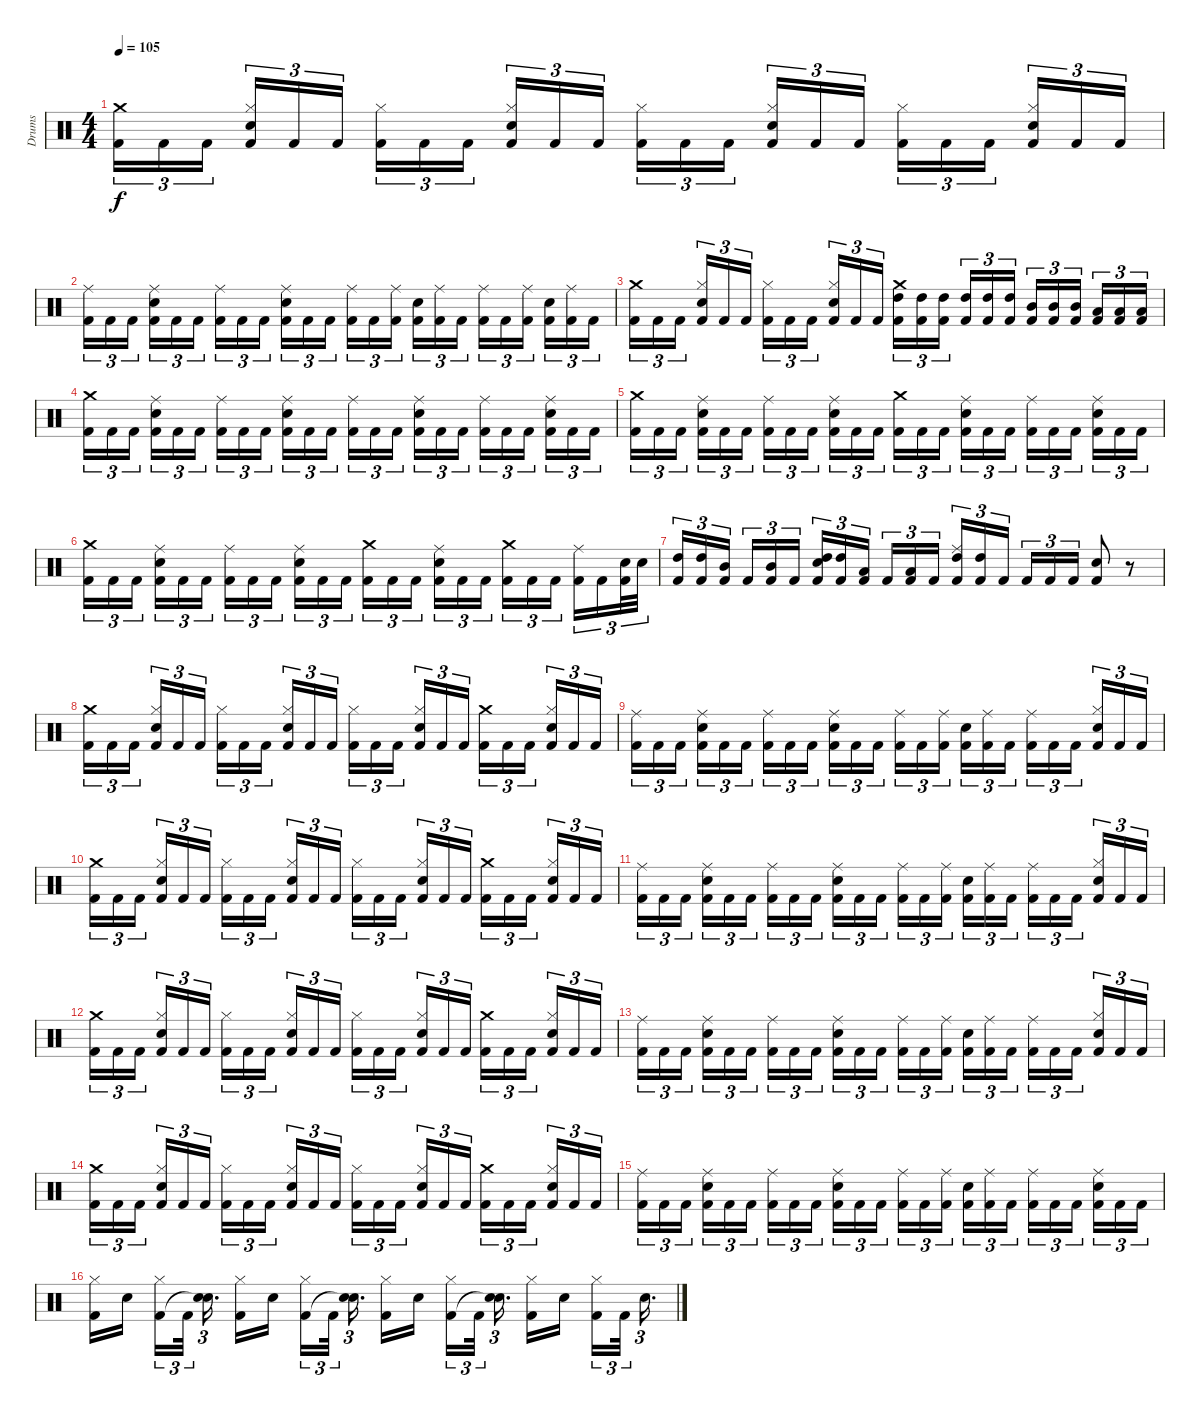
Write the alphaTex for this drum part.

\track ("Drums" "Drums") {instrument percussion}
\staff {score}
\articulation defaults
\ts (4 4)
\tempo 105
\clef neutral
\ks c
("Crash medium (hit)" "Kick (hit) 2").16{tu (3 2) dy f} "Kick (hit) 2".16{tu (3 2)} "Kick (hit) 2".16{tu (3 2)} ("Hi-Hat (closed)" "Electric Snare (hit)" "Kick (hit) 2").16{tu (3 2)} "Kick (hit) 2".16{tu (3 2)} "Kick (hit) 2".16{tu (3 2)} ("Hi-Hat (closed)" "Kick (hit) 2").16{tu (3 2)} "Kick (hit) 2".16{tu (3 2)} "Kick (hit) 2".16{tu (3 2)} ("Hi-Hat (closed)" "Electric Snare (hit)" "Kick (hit) 2").16{tu (3 2)} "Kick (hit) 2".16{tu (3 2)} "Kick (hit) 2".16{tu (3 2)} ("Hi-Hat (closed)" "Kick (hit) 2").16{tu (3 2)} "Kick (hit) 2".16{tu (3 2)} "Kick (hit) 2".16{tu (3 2)} ("Hi-Hat (closed)" "Electric Snare (hit)" "Kick (hit) 2").16{tu (3 2)} "Kick (hit) 2".16{tu (3 2)} "Kick (hit) 2".16{tu (3 2)} ("Hi-Hat (closed)" "Kick (hit) 2").16{tu (3 2)} "Kick (hit) 2".16{tu (3 2)} "Kick (hit) 2".16{tu (3 2)} ("Hi-Hat (closed)" "Electric Snare (hit)" "Kick (hit) 2").16{tu (3 2)} "Kick (hit) 2".16{tu (3 2)} "Kick (hit) 2".16{tu (3 2)} |
("Ride (middle)" "Kick (hit) 2").16{tu (3 2)} "Kick (hit) 2".16{tu (3 2)} "Kick (hit) 2".16{tu (3 2)} ("Ride (middle)" "Electric Snare (hit)" "Kick (hit) 2").16{tu (3 2)} "Kick (hit) 2".16{tu (3 2)} "Kick (hit) 2".16{tu (3 2)} ("Ride (middle)" "Kick (hit) 2").16{tu (3 2)} "Kick (hit) 2".16{tu (3 2)} "Kick (hit) 2".16{tu (3 2)} ("Ride (middle)" "Electric Snare (hit)" "Kick (hit) 2").16{tu (3 2)} "Kick (hit) 2".16{tu (3 2)} "Kick (hit) 2".16{tu (3 2)} ("Ride (middle)" "Kick (hit) 2").16{tu (3 2)} "Kick (hit) 2".16{tu (3 2)} ("Ride (middle)" "Kick (hit) 2").16{tu (3 2)} ("Electric Snare (hit)" "Kick (hit) 2").16{tu (3 2)} ("Ride (middle)" "Kick (hit) 2").16{tu (3 2)} "Kick (hit) 2".16{tu (3 2)} ("Ride (middle)" "Kick (hit) 2").16{tu (3 2)} "Kick (hit) 2".16{tu (3 2)} ("Ride (middle)" "Kick (hit) 2").16{tu (3 2)} ("Electric Snare (hit)" "Kick (hit) 2").16{tu (3 2)} ("Ride (middle)" "Kick (hit) 2").16{tu (3 2)} "Kick (hit) 2".16{tu (3 2)} |
("Crash medium (hit)" "Kick (hit) 2").16{tu (3 2)} "Kick (hit) 2".16{tu (3 2)} "Kick (hit) 2".16{tu (3 2)} ("Hi-Hat (closed)" "Electric Snare (hit)" "Kick (hit) 2").16{tu (3 2)} "Kick (hit) 2".16{tu (3 2)} "Kick (hit) 2".16{tu (3 2)} ("Hi-Hat (closed)" "Kick (hit) 2").16{tu (3 2)} "Kick (hit) 2".16{tu (3 2)} "Kick (hit) 2".16{tu (3 2)} ("Hi-Hat (closed)" "Electric Snare (hit)" "Kick (hit) 2").16{tu (3 2)} "Kick (hit) 2".16{tu (3 2)} "Kick (hit) 2".16{tu (3 2)} ("Crash medium (hit)" "High Tom (hit)" "Kick (hit) 2").16{tu (3 2)} ("High Tom (hit)" "Kick (hit) 2").16{tu (3 2)} ("High Tom (hit)" "Kick (hit) 2").16{tu (3 2)} ("High Tom (hit)" "Kick (hit) 2").16{tu (3 2)} ("High Tom (hit)" "Kick (hit) 2").16{tu (3 2)} ("High Tom (hit)" "Kick (hit) 2").16{tu (3 2)} ("Mid Tom (hit)" "Kick (hit) 2").16{tu (3 2)} ("Mid Tom (hit)" "Kick (hit) 2").16{tu (3 2)} ("Mid Tom (hit)" "Kick (hit) 2").16{tu (3 2)} ("Low Tom (hit)" "Kick (hit) 2").16{tu (3 2)} ("Low Tom (hit)" "Kick (hit) 2").16{tu (3 2)} ("Low Tom (hit)" "Kick (hit) 2").16{tu (3 2)} |
("Crash medium (hit)" "Kick (hit) 2").16{tu (3 2)} "Kick (hit) 2".16{tu (3 2)} "Kick (hit) 2".16{tu (3 2)} ("Ride (middle)" "Electric Snare (hit)" "Kick (hit) 2").16{tu (3 2)} "Kick (hit) 2".16{tu (3 2)} "Kick (hit) 2".16{tu (3 2)} ("Ride (middle)" "Kick (hit) 2").16{tu (3 2)} "Kick (hit) 2".16{tu (3 2)} "Kick (hit) 2".16{tu (3 2)} ("Ride (middle)" "Electric Snare (hit)" "Kick (hit) 2").16{tu (3 2)} "Kick (hit) 2".16{tu (3 2)} "Kick (hit) 2".16{tu (3 2)} ("Ride (middle)" "Kick (hit) 2").16{tu (3 2)} "Kick (hit) 2".16{tu (3 2)} "Kick (hit) 2".16{tu (3 2)} ("Ride (middle)" "Electric Snare (hit)" "Kick (hit) 2").16{tu (3 2)} "Kick (hit) 2".16{tu (3 2)} "Kick (hit) 2".16{tu (3 2)} ("Ride (middle)" "Kick (hit) 2").16{tu (3 2)} "Kick (hit) 2".16{tu (3 2)} "Kick (hit) 2".16{tu (3 2)} ("Ride (middle)" "Electric Snare (hit)" "Kick (hit) 2").16{tu (3 2)} "Kick (hit) 2".16{tu (3 2)} "Kick (hit) 2".16{tu (3 2)} |
("Crash medium (hit)" "Kick (hit) 2").16{tu (3 2)} "Kick (hit) 2".16{tu (3 2)} "Kick (hit) 2".16{tu (3 2)} ("Ride (middle)" "Electric Snare (hit)" "Kick (hit) 2").16{tu (3 2)} "Kick (hit) 2".16{tu (3 2)} "Kick (hit) 2".16{tu (3 2)} ("Ride (middle)" "Kick (hit) 2").16{tu (3 2)} "Kick (hit) 2".16{tu (3 2)} "Kick (hit) 2".16{tu (3 2)} ("Ride (middle)" "Electric Snare (hit)" "Kick (hit) 2").16{tu (3 2)} "Kick (hit) 2".16{tu (3 2)} "Kick (hit) 2".16{tu (3 2)} ("Crash medium (hit)" "Kick (hit) 2").16{tu (3 2)} "Kick (hit) 2".16{tu (3 2)} "Kick (hit) 2".16{tu (3 2)} ("Ride (middle)" "Electric Snare (hit)" "Kick (hit) 2").16{tu (3 2)} "Kick (hit) 2".16{tu (3 2)} "Kick (hit) 2".16{tu (3 2)} ("Ride (middle)" "Kick (hit) 2").16{tu (3 2)} "Kick (hit) 2".16{tu (3 2)} "Kick (hit) 2".16{tu (3 2)} ("Ride (middle)" "Electric Snare (hit)" "Kick (hit) 2").16{tu (3 2)} "Kick (hit) 2".16{tu (3 2)} "Kick (hit) 2".16{tu (3 2)} |
("Crash medium (hit)" "Kick (hit) 2").16{tu (3 2)} "Kick (hit) 2".16{tu (3 2)} "Kick (hit) 2".16{tu (3 2)} ("Ride (middle)" "Electric Snare (hit)" "Kick (hit) 2").16{tu (3 2)} "Kick (hit) 2".16{tu (3 2)} "Kick (hit) 2".16{tu (3 2)} ("Ride (middle)" "Kick (hit) 2").16{tu (3 2)} "Kick (hit) 2".16{tu (3 2)} "Kick (hit) 2".16{tu (3 2)} ("Ride (middle)" "Electric Snare (hit)" "Kick (hit) 2").16{tu (3 2)} "Kick (hit) 2".16{tu (3 2)} "Kick (hit) 2".16{tu (3 2)} ("Crash medium (hit)" "Kick (hit) 2").16{tu (3 2)} "Kick (hit) 2".16{tu (3 2)} "Kick (hit) 2".16{tu (3 2)} ("Ride (middle)" "Electric Snare (hit)" "Kick (hit) 2").16{tu (3 2)} "Kick (hit) 2".16{tu (3 2)} "Kick (hit) 2".16{tu (3 2)} ("Crash medium (hit)" "Kick (hit) 2").16{tu (3 2)} "Kick (hit) 2".16{tu (3 2)} "Kick (hit) 2".16{tu (3 2)} ("Ride (middle)" "Kick (hit) 2").16{tu (3 2)} "Kick (hit) 2".16{tu (3 2)} ("Electric Snare (hit)" "Kick (hit) 2").32{tu (3 2)} "Electric Snare (hit)".32{tu (3 2)} |
("High Tom (hit)" "Kick (hit) 2").16{tu (3 2)} ("High Tom (hit)" "Kick (hit) 2").16{tu (3 2)} ("Mid Tom (hit)" "Kick (hit) 2").16{tu (3 2)} "Kick (hit) 2".16{tu (3 2)} ("Mid Tom (hit)" "Kick (hit) 2").16{tu (3 2)} "Kick (hit) 2".16{tu (3 2)} ("Electric Snare (hit)" "High Tom (hit)" "Kick (hit) 2").16{tu (3 2)} ("High Tom (hit)" "Kick (hit) 2").16{tu (3 2)} ("Low Tom (hit)" "Kick (hit) 2").16{tu (3 2)} "Kick (hit) 2".16{tu (3 2)} ("Low Tom (hit)" "Kick (hit) 2").16{tu (3 2)} "Kick (hit) 2".16{tu (3 2)} ("Ride (middle)" "High Tom (hit)" "Kick (hit) 2").16{tu (3 2)} ("High Tom (hit)" "Kick (hit) 2").16{tu (3 2)} "Kick (hit) 2".16{tu (3 2)} "Kick (hit) 2".16{tu (3 2)} "Kick (hit) 2".16{tu (3 2)} "Kick (hit) 2".16{tu (3 2)} ("Electric Snare (hit)" "Kick (hit) 2").8 r.8 |
("Crash medium (hit)" "Kick (hit) 2").16{tu (3 2)} "Kick (hit) 2".16{tu (3 2)} "Kick (hit) 2".16{tu (3 2)} ("Hi-Hat (closed)" "Electric Snare (hit)" "Kick (hit) 2").16{tu (3 2)} "Kick (hit) 2".16{tu (3 2)} "Kick (hit) 2".16{tu (3 2)} ("Hi-Hat (closed)" "Kick (hit) 2").16{tu (3 2)} "Kick (hit) 2".16{tu (3 2)} "Kick (hit) 2".16{tu (3 2)} ("Hi-Hat (closed)" "Electric Snare (hit)" "Kick (hit) 2").16{tu (3 2)} "Kick (hit) 2".16{tu (3 2)} "Kick (hit) 2".16{tu (3 2)} ("Hi-Hat (closed)" "Kick (hit) 2").16{tu (3 2)} "Kick (hit) 2".16{tu (3 2)} "Kick (hit) 2".16{tu (3 2)} ("Hi-Hat (closed)" "Electric Snare (hit)" "Kick (hit) 2").16{tu (3 2)} "Kick (hit) 2".16{tu (3 2)} "Kick (hit) 2".16{tu (3 2)} ("Crash medium (hit)" "Kick (hit) 2").16{tu (3 2)} "Kick (hit) 2".16{tu (3 2)} "Kick (hit) 2".16{tu (3 2)} ("Hi-Hat (closed)" "Electric Snare (hit)" "Kick (hit) 2").16{tu (3 2)} "Kick (hit) 2".16{tu (3 2)} "Kick (hit) 2".16{tu (3 2)} |
("Ride (middle)" "Kick (hit) 2").16{tu (3 2)} "Kick (hit) 2".16{tu (3 2)} "Kick (hit) 2".16{tu (3 2)} ("Ride (middle)" "Electric Snare (hit)" "Kick (hit) 2").16{tu (3 2)} "Kick (hit) 2".16{tu (3 2)} "Kick (hit) 2".16{tu (3 2)} ("Ride (middle)" "Kick (hit) 2").16{tu (3 2)} "Kick (hit) 2".16{tu (3 2)} "Kick (hit) 2".16{tu (3 2)} ("Ride (middle)" "Electric Snare (hit)" "Kick (hit) 2").16{tu (3 2)} "Kick (hit) 2".16{tu (3 2)} "Kick (hit) 2".16{tu (3 2)} ("Ride (middle)" "Kick (hit) 2").16{tu (3 2)} "Kick (hit) 2".16{tu (3 2)} ("Ride (middle)" "Kick (hit) 2").16{tu (3 2)} ("Electric Snare (hit)" "Kick (hit) 2").16{tu (3 2)} ("Ride (middle)" "Kick (hit) 2").16{tu (3 2)} "Kick (hit) 2".16{tu (3 2)} ("Ride (middle)" "Kick (hit) 2").16{tu (3 2)} "Kick (hit) 2".16{tu (3 2)} "Kick (hit) 2".16{tu (3 2)} ("Hi-Hat (closed)" "Electric Snare (hit)" "Kick (hit) 2").16{tu (3 2)} "Kick (hit) 2".16{tu (3 2)} "Kick (hit) 2".16{tu (3 2)} |
("Crash medium (hit)" "Kick (hit) 2").16{tu (3 2)} "Kick (hit) 2".16{tu (3 2)} "Kick (hit) 2".16{tu (3 2)} ("Hi-Hat (closed)" "Electric Snare (hit)" "Kick (hit) 2").16{tu (3 2)} "Kick (hit) 2".16{tu (3 2)} "Kick (hit) 2".16{tu (3 2)} ("Hi-Hat (closed)" "Kick (hit) 2").16{tu (3 2)} "Kick (hit) 2".16{tu (3 2)} "Kick (hit) 2".16{tu (3 2)} ("Hi-Hat (closed)" "Electric Snare (hit)" "Kick (hit) 2").16{tu (3 2)} "Kick (hit) 2".16{tu (3 2)} "Kick (hit) 2".16{tu (3 2)} ("Hi-Hat (closed)" "Kick (hit) 2").16{tu (3 2)} "Kick (hit) 2".16{tu (3 2)} "Kick (hit) 2".16{tu (3 2)} ("Hi-Hat (closed)" "Electric Snare (hit)" "Kick (hit) 2").16{tu (3 2)} "Kick (hit) 2".16{tu (3 2)} "Kick (hit) 2".16{tu (3 2)} ("Crash medium (hit)" "Kick (hit) 2").16{tu (3 2)} "Kick (hit) 2".16{tu (3 2)} "Kick (hit) 2".16{tu (3 2)} ("Hi-Hat (closed)" "Electric Snare (hit)" "Kick (hit) 2").16{tu (3 2)} "Kick (hit) 2".16{tu (3 2)} "Kick (hit) 2".16{tu (3 2)} |
("Ride (middle)" "Kick (hit) 2").16{tu (3 2)} "Kick (hit) 2".16{tu (3 2)} "Kick (hit) 2".16{tu (3 2)} ("Ride (middle)" "Electric Snare (hit)" "Kick (hit) 2").16{tu (3 2)} "Kick (hit) 2".16{tu (3 2)} "Kick (hit) 2".16{tu (3 2)} ("Ride (middle)" "Kick (hit) 2").16{tu (3 2)} "Kick (hit) 2".16{tu (3 2)} "Kick (hit) 2".16{tu (3 2)} ("Ride (middle)" "Electric Snare (hit)" "Kick (hit) 2").16{tu (3 2)} "Kick (hit) 2".16{tu (3 2)} "Kick (hit) 2".16{tu (3 2)} ("Ride (middle)" "Kick (hit) 2").16{tu (3 2)} "Kick (hit) 2".16{tu (3 2)} ("Ride (middle)" "Kick (hit) 2").16{tu (3 2)} ("Electric Snare (hit)" "Kick (hit) 2").16{tu (3 2)} ("Ride (middle)" "Kick (hit) 2").16{tu (3 2)} "Kick (hit) 2".16{tu (3 2)} ("Ride (middle)" "Kick (hit) 2").16{tu (3 2)} "Kick (hit) 2".16{tu (3 2)} "Kick (hit) 2".16{tu (3 2)} ("Hi-Hat (closed)" "Electric Snare (hit)" "Kick (hit) 2").16{tu (3 2)} "Kick (hit) 2".16{tu (3 2)} "Kick (hit) 2".16{tu (3 2)} |
("Crash medium (hit)" "Kick (hit) 2").16{tu (3 2)} "Kick (hit) 2".16{tu (3 2)} "Kick (hit) 2".16{tu (3 2)} ("Hi-Hat (closed)" "Electric Snare (hit)" "Kick (hit) 2").16{tu (3 2)} "Kick (hit) 2".16{tu (3 2)} "Kick (hit) 2".16{tu (3 2)} ("Hi-Hat (closed)" "Kick (hit) 2").16{tu (3 2)} "Kick (hit) 2".16{tu (3 2)} "Kick (hit) 2".16{tu (3 2)} ("Hi-Hat (closed)" "Electric Snare (hit)" "Kick (hit) 2").16{tu (3 2)} "Kick (hit) 2".16{tu (3 2)} "Kick (hit) 2".16{tu (3 2)} ("Hi-Hat (closed)" "Kick (hit) 2").16{tu (3 2)} "Kick (hit) 2".16{tu (3 2)} "Kick (hit) 2".16{tu (3 2)} ("Hi-Hat (closed)" "Electric Snare (hit)" "Kick (hit) 2").16{tu (3 2)} "Kick (hit) 2".16{tu (3 2)} "Kick (hit) 2".16{tu (3 2)} ("Crash medium (hit)" "Kick (hit) 2").16{tu (3 2)} "Kick (hit) 2".16{tu (3 2)} "Kick (hit) 2".16{tu (3 2)} ("Hi-Hat (closed)" "Electric Snare (hit)" "Kick (hit) 2").16{tu (3 2)} "Kick (hit) 2".16{tu (3 2)} "Kick (hit) 2".16{tu (3 2)} |
("Ride (middle)" "Kick (hit) 2").16{tu (3 2)} "Kick (hit) 2".16{tu (3 2)} "Kick (hit) 2".16{tu (3 2)} ("Ride (middle)" "Electric Snare (hit)" "Kick (hit) 2").16{tu (3 2)} "Kick (hit) 2".16{tu (3 2)} "Kick (hit) 2".16{tu (3 2)} ("Ride (middle)" "Kick (hit) 2").16{tu (3 2)} "Kick (hit) 2".16{tu (3 2)} "Kick (hit) 2".16{tu (3 2)} ("Ride (middle)" "Electric Snare (hit)" "Kick (hit) 2").16{tu (3 2)} "Kick (hit) 2".16{tu (3 2)} "Kick (hit) 2".16{tu (3 2)} ("Ride (middle)" "Kick (hit) 2").16{tu (3 2)} "Kick (hit) 2".16{tu (3 2)} ("Ride (middle)" "Kick (hit) 2").16{tu (3 2)} ("Electric Snare (hit)" "Kick (hit) 2").16{tu (3 2)} ("Ride (middle)" "Kick (hit) 2").16{tu (3 2)} "Kick (hit) 2".16{tu (3 2)} ("Ride (middle)" "Kick (hit) 2").16{tu (3 2)} "Kick (hit) 2".16{tu (3 2)} "Kick (hit) 2".16{tu (3 2)} ("Hi-Hat (closed)" "Electric Snare (hit)" "Kick (hit) 2").16{tu (3 2)} "Kick (hit) 2".16{tu (3 2)} "Kick (hit) 2".16{tu (3 2)} |
("Crash medium (hit)" "Kick (hit) 2").16{tu (3 2)} "Kick (hit) 2".16{tu (3 2)} "Kick (hit) 2".16{tu (3 2)} ("Hi-Hat (closed)" "Electric Snare (hit)" "Kick (hit) 2").16{tu (3 2)} "Kick (hit) 2".16{tu (3 2)} "Kick (hit) 2".16{tu (3 2)} ("Hi-Hat (closed)" "Kick (hit) 2").16{tu (3 2)} "Kick (hit) 2".16{tu (3 2)} "Kick (hit) 2".16{tu (3 2)} ("Hi-Hat (closed)" "Electric Snare (hit)" "Kick (hit) 2").16{tu (3 2)} "Kick (hit) 2".16{tu (3 2)} "Kick (hit) 2".16{tu (3 2)} ("Hi-Hat (closed)" "Kick (hit) 2").16{tu (3 2)} "Kick (hit) 2".16{tu (3 2)} "Kick (hit) 2".16{tu (3 2)} ("Hi-Hat (closed)" "Electric Snare (hit)" "Kick (hit) 2").16{tu (3 2)} "Kick (hit) 2".16{tu (3 2)} "Kick (hit) 2".16{tu (3 2)} ("Crash medium (hit)" "Kick (hit) 2").16{tu (3 2)} "Kick (hit) 2".16{tu (3 2)} "Kick (hit) 2".16{tu (3 2)} ("Hi-Hat (closed)" "Electric Snare (hit)" "Kick (hit) 2").16{tu (3 2)} "Kick (hit) 2".16{tu (3 2)} "Kick (hit) 2".16{tu (3 2)} |
("Ride (middle)" "Kick (hit) 2").16{tu (3 2)} "Kick (hit) 2".16{tu (3 2)} "Kick (hit) 2".16{tu (3 2)} ("Ride (middle)" "Electric Snare (hit)" "Kick (hit) 2").16{tu (3 2)} "Kick (hit) 2".16{tu (3 2)} "Kick (hit) 2".16{tu (3 2)} ("Ride (middle)" "Kick (hit) 2").16{tu (3 2)} "Kick (hit) 2".16{tu (3 2)} "Kick (hit) 2".16{tu (3 2)} ("Ride (middle)" "Electric Snare (hit)" "Kick (hit) 2").16{tu (3 2)} "Kick (hit) 2".16{tu (3 2)} "Kick (hit) 2".16{tu (3 2)} ("Ride (middle)" "Kick (hit) 2").16{tu (3 2)} "Kick (hit) 2".16{tu (3 2)} ("Ride (middle)" "Kick (hit) 2").16{tu (3 2)} ("Electric Snare (hit)" "Kick (hit) 2").16{tu (3 2)} ("Ride (middle)" "Kick (hit) 2").16{tu (3 2)} "Kick (hit) 2".16{tu (3 2)} ("Ride (middle)" "Kick (hit) 2").16{tu (3 2)} "Kick (hit) 2".16{tu (3 2)} "Kick (hit) 2".16{tu (3 2)} ("Ride (middle)" "Electric Snare (hit)" "Kick (hit) 2").16{tu (3 2)} "Kick (hit) 2".16{tu (3 2)} "Kick (hit) 2".16{tu (3 2)} |
("Hi-Hat (closed)" "Kick (hit) 2").16 "Electric Snare (hit)".16 ("Hi-Hat (closed)" "Kick (hit) 2").16{tu (3 2)} "Kick (hit) 2".32{tu (3 2)} ("Electric Snare (hit)" "Snare (hit)"{t}).16{d tu (3 2)} ("Hi-Hat (closed)" "Kick (hit) 2").16 "Electric Snare (hit)".16 ("Hi-Hat (closed)" "Kick (hit) 2").16{tu (3 2)} "Kick (hit) 2".32{tu (3 2)} ("Electric Snare (hit)" "Snare (hit)"{t}).16{d tu (3 2)} ("Hi-Hat (closed)" "Kick (hit) 2").16 "Electric Snare (hit)".16 ("Hi-Hat (closed)" "Kick (hit) 2").16{tu (3 2)} "Kick (hit) 2".32{tu (3 2)} ("Electric Snare (hit)" "Snare (hit)"{t}).16{d tu (3 2)} ("Hi-Hat (closed)" "Kick (hit) 2").16 "Electric Snare (hit)".16 ("Hi-Hat (closed)" "Kick (hit) 2").16{tu (3 2)} "Kick (hit) 2".32{tu (3 2)} "Electric Snare (hit)".16{d tu (3 2)}
